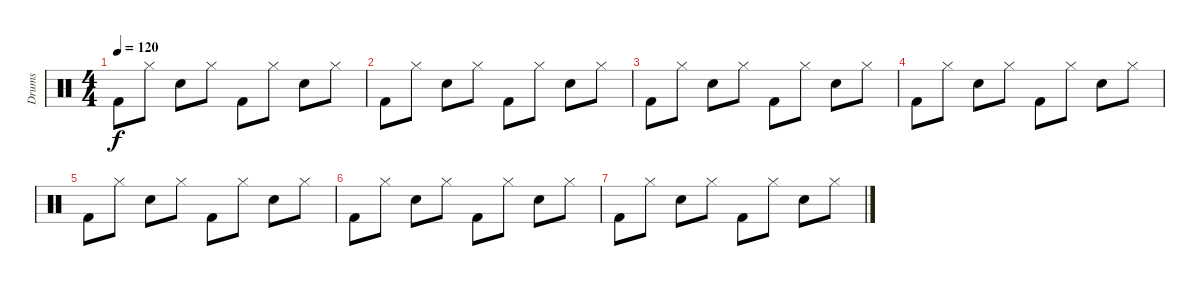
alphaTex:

\track ("Drums" "Drums") {instrument percussion}
\staff {score}
\articulation defaults
\ts (4 4)
\tempo 120
\clef neutral
\ks c "Kick (hit) 2".8{dy f} "Hi-Hat (closed)".8 "Snare (hit) 2".8 "Hi-Hat (closed)".8 "Kick (hit) 2".8 "Hi-Hat (closed)".8 "Snare (hit) 2".8 "Hi-Hat (closed)".8
|
"Kick (hit) 2".8 "Hi-Hat (closed)".8 "Snare (hit) 2".8 "Hi-Hat (closed)".8 "Kick (hit) 2".8 "Hi-Hat (closed)".8 "Snare (hit) 2".8 "Hi-Hat (closed)".8 |
"Kick (hit) 2".8 "Hi-Hat (closed)".8 "Snare (hit) 2".8 "Hi-Hat (closed)".8 "Kick (hit) 2".8 "Hi-Hat (closed)".8 "Snare (hit) 2".8 "Hi-Hat (closed)".8 |
"Kick (hit) 2".8 "Hi-Hat (closed)".8 "Snare (hit) 2".8 "Hi-Hat (closed)".8 "Kick (hit) 2".8 "Hi-Hat (closed)".8 "Snare (hit) 2".8 "Hi-Hat (closed)".8 |
"Kick (hit) 2".8 "Hi-Hat (closed)".8 "Snare (hit) 2".8 "Hi-Hat (closed)".8 "Kick (hit) 2".8 "Hi-Hat (closed)".8 "Snare (hit) 2".8 "Hi-Hat (closed)".8 |
"Kick (hit) 2".8 "Hi-Hat (closed)".8 "Snare (hit) 2".8 "Hi-Hat (closed)".8 "Kick (hit) 2".8 "Hi-Hat (closed)".8 "Snare (hit) 2".8 "Hi-Hat (closed)".8 |
"Kick (hit) 2".8 "Hi-Hat (closed)".8 "Snare (hit) 2".8 "Hi-Hat (closed)".8 "Kick (hit) 2".8 "Hi-Hat (closed)".8 "Snare (hit) 2".8 "Hi-Hat (closed)".8
